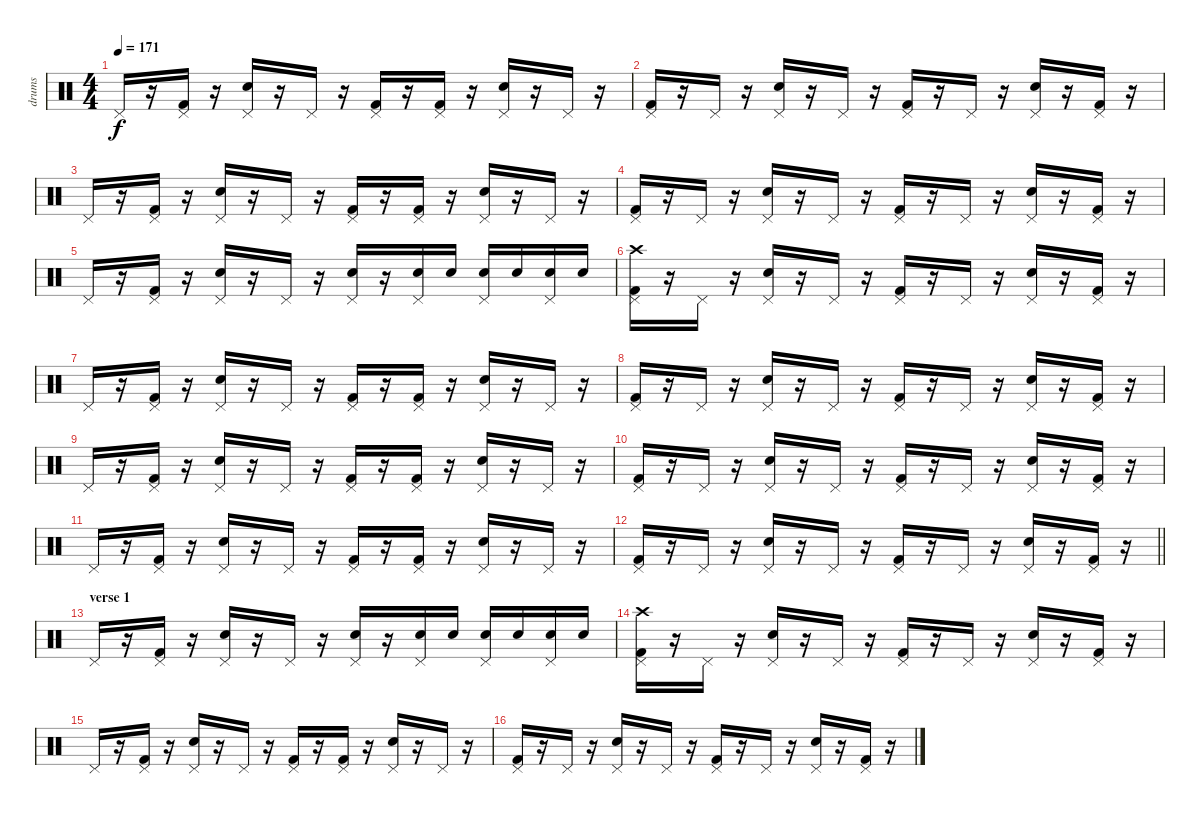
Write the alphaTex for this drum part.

\track ("drums" "drums") {instrument percussion}
\staff {score}
\articulation defaults
\ts (4 4)
\tempo 171
\clef neutral
\ks c "Pedal Hi-Hat (hit)".16{dy f}
r.16 ("Pedal Hi-Hat (hit)" "Kick (hit) 2").16 r.16 ("Pedal Hi-Hat (hit)" "Electric Snare (hit)").16 r.16 "Pedal Hi-Hat (hit)".16 r.16 ("Pedal Hi-Hat (hit)" "Kick (hit) 2").16 r.16 ("Pedal Hi-Hat (hit)" "Kick (hit) 2").16 r.16 ("Pedal Hi-Hat (hit)" "Electric Snare (hit)").16 r.16 "Pedal Hi-Hat (hit)".16 r.16 |
("Pedal Hi-Hat (hit)" "Kick (hit) 2").16 r.16 "Pedal Hi-Hat (hit)".16 r.16 ("Pedal Hi-Hat (hit)" "Electric Snare (hit)").16 r.16 "Pedal Hi-Hat (hit)".16 r.16 ("Pedal Hi-Hat (hit)" "Kick (hit) 2").16 r.16 "Pedal Hi-Hat (hit)".16 r.16 ("Pedal Hi-Hat (hit)" "Electric Snare (hit)").16 r.16 ("Pedal Hi-Hat (hit)" "Kick (hit) 2").16 r.16 |
"Pedal Hi-Hat (hit)".16 r.16 ("Pedal Hi-Hat (hit)" "Kick (hit) 2").16 r.16 ("Pedal Hi-Hat (hit)" "Electric Snare (hit)").16 r.16 "Pedal Hi-Hat (hit)".16 r.16 ("Pedal Hi-Hat (hit)" "Kick (hit) 2").16 r.16 ("Pedal Hi-Hat (hit)" "Kick (hit) 2").16 r.16 ("Pedal Hi-Hat (hit)" "Electric Snare (hit)").16 r.16 "Pedal Hi-Hat (hit)".16 r.16 |
("Pedal Hi-Hat (hit)" "Kick (hit) 2").16 r.16 "Pedal Hi-Hat (hit)".16 r.16 ("Pedal Hi-Hat (hit)" "Electric Snare (hit)").16 r.16 "Pedal Hi-Hat (hit)".16 r.16 ("Pedal Hi-Hat (hit)" "Kick (hit) 2").16 r.16 "Pedal Hi-Hat (hit)".16 r.16 ("Pedal Hi-Hat (hit)" "Electric Snare (hit)").16 r.16 ("Pedal Hi-Hat (hit)" "Kick (hit) 2").16 r.16 |
"Pedal Hi-Hat (hit)".16 r.16 ("Pedal Hi-Hat (hit)" "Kick (hit) 2").16 r.16 ("Pedal Hi-Hat (hit)" "Electric Snare (hit)").16 r.16 "Pedal Hi-Hat (hit)".16 r.16 ("Pedal Hi-Hat (hit)" "Electric Snare (hit)").16 r.16 ("Pedal Hi-Hat (hit)" "Electric Snare (hit)").16 "Electric Snare (hit)".16 ("Pedal Hi-Hat (hit)" "Electric Snare (hit)").16 "Electric Snare (hit)".16 ("Pedal Hi-Hat (hit)" "Electric Snare (hit)").16 "Electric Snare (hit)".16 |
("Pedal Hi-Hat (hit)" "Crash high (hit)" "Kick (hit) 2").16 r.16 "Pedal Hi-Hat (hit)".16 r.16 ("Pedal Hi-Hat (hit)" "Electric Snare (hit)").16 r.16 "Pedal Hi-Hat (hit)".16 r.16 ("Pedal Hi-Hat (hit)" "Kick (hit) 2").16 r.16 "Pedal Hi-Hat (hit)".16 r.16 ("Pedal Hi-Hat (hit)" "Electric Snare (hit)").16 r.16 ("Pedal Hi-Hat (hit)" "Kick (hit) 2").16 r.16 |
"Pedal Hi-Hat (hit)".16 r.16 ("Pedal Hi-Hat (hit)" "Kick (hit) 2").16 r.16 ("Pedal Hi-Hat (hit)" "Electric Snare (hit)").16 r.16 "Pedal Hi-Hat (hit)".16 r.16 ("Pedal Hi-Hat (hit)" "Kick (hit) 2").16 r.16 ("Pedal Hi-Hat (hit)" "Kick (hit) 2").16 r.16 ("Pedal Hi-Hat (hit)" "Electric Snare (hit)").16 r.16 "Pedal Hi-Hat (hit)".16 r.16 |
("Pedal Hi-Hat (hit)" "Kick (hit) 2").16 r.16 "Pedal Hi-Hat (hit)".16 r.16 ("Pedal Hi-Hat (hit)" "Electric Snare (hit)").16 r.16 "Pedal Hi-Hat (hit)".16 r.16 ("Pedal Hi-Hat (hit)" "Kick (hit) 2").16 r.16 "Pedal Hi-Hat (hit)".16 r.16 ("Pedal Hi-Hat (hit)" "Electric Snare (hit)").16 r.16 ("Pedal Hi-Hat (hit)" "Kick (hit) 2").16 r.16 |
"Pedal Hi-Hat (hit)".16 r.16 ("Pedal Hi-Hat (hit)" "Kick (hit) 2").16 r.16 ("Pedal Hi-Hat (hit)" "Electric Snare (hit)").16 r.16 "Pedal Hi-Hat (hit)".16 r.16 ("Pedal Hi-Hat (hit)" "Kick (hit) 2").16 r.16 ("Pedal Hi-Hat (hit)" "Kick (hit) 2").16 r.16 ("Pedal Hi-Hat (hit)" "Electric Snare (hit)").16 r.16 "Pedal Hi-Hat (hit)".16 r.16 |
("Pedal Hi-Hat (hit)" "Kick (hit) 2").16 r.16 "Pedal Hi-Hat (hit)".16 r.16 ("Pedal Hi-Hat (hit)" "Electric Snare (hit)").16 r.16 "Pedal Hi-Hat (hit)".16 r.16 ("Pedal Hi-Hat (hit)" "Kick (hit) 2").16 r.16 "Pedal Hi-Hat (hit)".16 r.16 ("Pedal Hi-Hat (hit)" "Electric Snare (hit)").16 r.16 ("Pedal Hi-Hat (hit)" "Kick (hit) 2").16 r.16 |
"Pedal Hi-Hat (hit)".16 r.16 ("Pedal Hi-Hat (hit)" "Kick (hit) 2").16 r.16 ("Pedal Hi-Hat (hit)" "Electric Snare (hit)").16 r.16 "Pedal Hi-Hat (hit)".16 r.16 ("Pedal Hi-Hat (hit)" "Kick (hit) 2").16 r.16 ("Pedal Hi-Hat (hit)" "Kick (hit) 2").16 r.16 ("Pedal Hi-Hat (hit)" "Electric Snare (hit)").16 r.16 "Pedal Hi-Hat (hit)".16 r.16 |
\barLineRight lightlight
("Pedal Hi-Hat (hit)" "Kick (hit) 2").16 r.16 "Pedal Hi-Hat (hit)".16 r.16 ("Pedal Hi-Hat (hit)" "Electric Snare (hit)").16 r.16 "Pedal Hi-Hat (hit)".16 r.16 ("Pedal Hi-Hat (hit)" "Kick (hit) 2").16 r.16 "Pedal Hi-Hat (hit)".16 r.16 ("Pedal Hi-Hat (hit)" "Electric Snare (hit)").16 r.16 ("Pedal Hi-Hat (hit)" "Kick (hit) 2").16 r.16 |
\section ("" "verse 1")
"Pedal Hi-Hat (hit)".16 r.16 ("Pedal Hi-Hat (hit)" "Kick (hit) 2").16 r.16 ("Pedal Hi-Hat (hit)" "Electric Snare (hit)").16 r.16 "Pedal Hi-Hat (hit)".16 r.16 ("Pedal Hi-Hat (hit)" "Electric Snare (hit)").16 r.16 ("Pedal Hi-Hat (hit)" "Electric Snare (hit)").16 "Electric Snare (hit)".16 ("Pedal Hi-Hat (hit)" "Electric Snare (hit)").16 "Electric Snare (hit)".16 ("Pedal Hi-Hat (hit)" "Electric Snare (hit)").16 "Electric Snare (hit)".16 |
("Pedal Hi-Hat (hit)" "Crash high (hit)" "Kick (hit) 2").16 r.16 "Pedal Hi-Hat (hit)".16 r.16 ("Pedal Hi-Hat (hit)" "Electric Snare (hit)").16 r.16 "Pedal Hi-Hat (hit)".16 r.16 ("Pedal Hi-Hat (hit)" "Kick (hit) 2").16 r.16 "Pedal Hi-Hat (hit)".16 r.16 ("Pedal Hi-Hat (hit)" "Electric Snare (hit)").16 r.16 ("Pedal Hi-Hat (hit)" "Kick (hit) 2").16 r.16 |
"Pedal Hi-Hat (hit)".16 r.16 ("Pedal Hi-Hat (hit)" "Kick (hit) 2").16 r.16 ("Pedal Hi-Hat (hit)" "Electric Snare (hit)").16 r.16 "Pedal Hi-Hat (hit)".16 r.16 ("Pedal Hi-Hat (hit)" "Kick (hit) 2").16 r.16 ("Pedal Hi-Hat (hit)" "Kick (hit) 2").16 r.16 ("Pedal Hi-Hat (hit)" "Electric Snare (hit)").16 r.16 "Pedal Hi-Hat (hit)".16 r.16 |
("Pedal Hi-Hat (hit)" "Kick (hit) 2").16 r.16 "Pedal Hi-Hat (hit)".16 r.16 ("Pedal Hi-Hat (hit)" "Electric Snare (hit)").16 r.16 "Pedal Hi-Hat (hit)".16 r.16 ("Pedal Hi-Hat (hit)" "Kick (hit) 2").16 r.16 "Pedal Hi-Hat (hit)".16 r.16 ("Pedal Hi-Hat (hit)" "Electric Snare (hit)").16 r.16 ("Pedal Hi-Hat (hit)" "Kick (hit) 2").16 r.16
